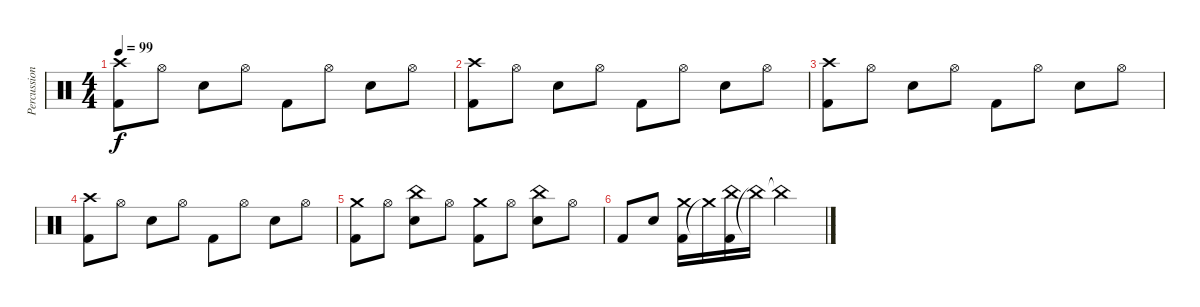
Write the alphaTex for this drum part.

\track ("Percussion" "Percussion") {instrument percussion}
\staff {score}
\articulation defaults
\ts (4 4)
\tempo 99
\clef neutral
\ks c
("Kick (hit) 2" "Crash high (hit)").8{dy f} "Hi-Hat (open)".8 "Snare (hit) 2".8 "Hi-Hat (open)".8 "Kick (hit) 2".8 "Hi-Hat (open)".8 "Snare (hit) 2".8 "Hi-Hat (open)".8 |
("Kick (hit) 2" "Crash high (hit)").8 "Hi-Hat (open)".8 "Snare (hit) 2".8 "Hi-Hat (open)".8 "Kick (hit) 2".8 "Hi-Hat (open)".8 "Snare (hit) 2".8 "Hi-Hat (open)".8 |
("Kick (hit) 2" "Crash high (hit)").8 "Hi-Hat (open)".8 "Snare (hit) 2".8 "Hi-Hat (open)".8 "Kick (hit) 2".8 "Hi-Hat (open)".8 "Snare (hit) 2".8 "Hi-Hat (open)".8 |
("Kick (hit) 2" "Crash high (hit)").8 "Hi-Hat (open)".8 "Snare (hit) 2".8 "Hi-Hat (open)".8 "Kick (hit) 2".8 "Hi-Hat (open)".8 "Snare (hit) 2".8 "Hi-Hat (open)".8 |
("Kick (hit) 2" "Crash medium (hit)").8 "Hi-Hat (open)".8 ("Snare (hit) 2" "China (hit)").8 "Hi-Hat (open)".8 ("Kick (hit) 2" "Crash medium (hit)").8 "Hi-Hat (open)".8 ("Snare (hit) 2" "China (hit)").8 "Hi-Hat (open)".8 |
"Kick (hit) 2".8 "Snare (hit) 2".8 ("Kick (hit) 2" "Crash medium (hit)").16 "Crash medium (hit)"{t}.16 ("Kick (hit) 2" "China (hit)").16 "China (hit)"{t}.16 "China (hit)"{t}.2
